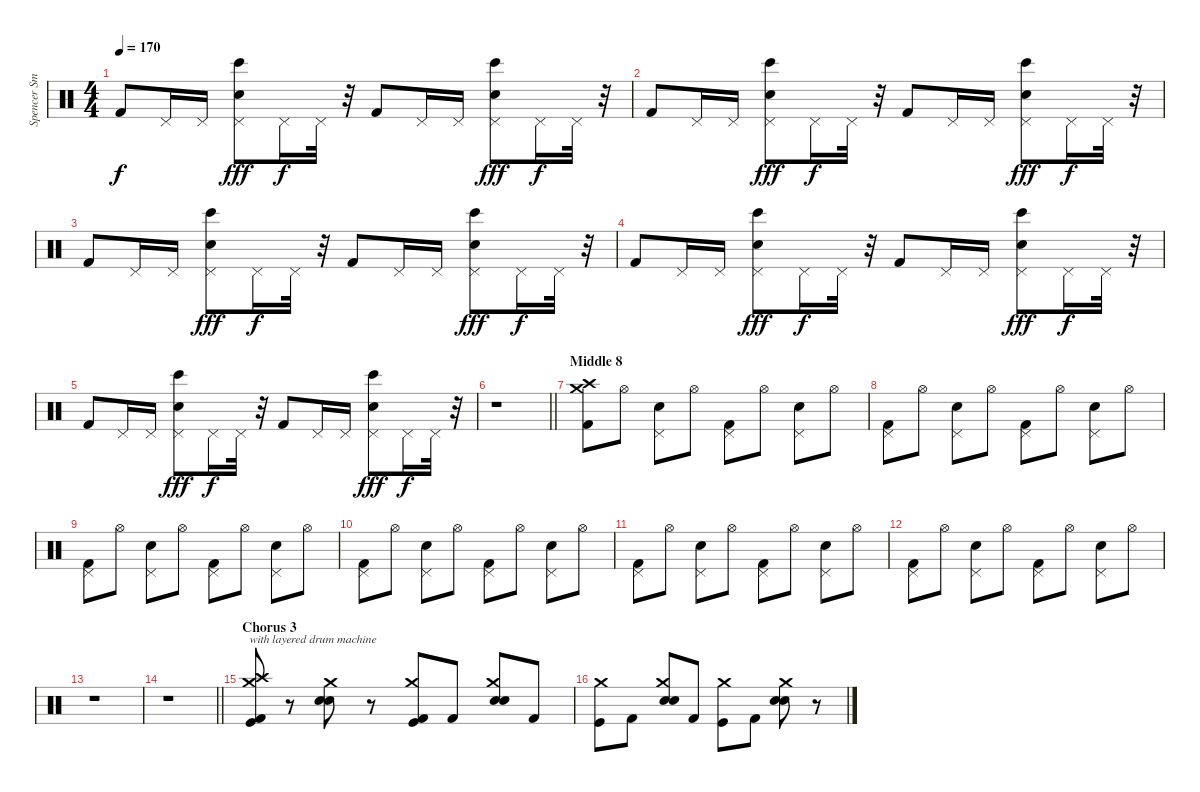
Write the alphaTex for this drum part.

\track ("Spencer Smith (Drums)" "Spencer Sm") {instrument percussion}
\staff {score}
\articulation defaults
\ts (4 4)
\tempo 170
\clef neutral
\ks c "Kick (hit) 2".8{dy f} "Pedal Hi-Hat (hit)".16 "Pedal Hi-Hat (hit)".16
("Pedal Hi-Hat (hit)" "Hand Clap (hit)" "Bongo High (hit)").8{dy fff} "Pedal Hi-Hat (hit)".16{dy f} "Pedal Hi-Hat (hit)".32 r.32 "Kick (hit) 2".8 "Pedal Hi-Hat (hit)".16 "Pedal Hi-Hat (hit)".16 ("Pedal Hi-Hat (hit)" "Hand Clap (hit)" "Bongo High (hit)").8{dy fff} "Pedal Hi-Hat (hit)".16{dy f} "Pedal Hi-Hat (hit)".32 r.32 |
"Kick (hit) 2".8 "Pedal Hi-Hat (hit)".16 "Pedal Hi-Hat (hit)".16 ("Pedal Hi-Hat (hit)" "Hand Clap (hit)" "Bongo High (hit)").8{dy fff} "Pedal Hi-Hat (hit)".16{dy f} "Pedal Hi-Hat (hit)".32 r.32 "Kick (hit) 2".8 "Pedal Hi-Hat (hit)".16 "Pedal Hi-Hat (hit)".16 ("Pedal Hi-Hat (hit)" "Hand Clap (hit)" "Bongo High (hit)").8{dy fff} "Pedal Hi-Hat (hit)".16{dy f} "Pedal Hi-Hat (hit)".32 r.32 |
"Kick (hit) 2".8 "Pedal Hi-Hat (hit)".16 "Pedal Hi-Hat (hit)".16 ("Pedal Hi-Hat (hit)" "Hand Clap (hit)" "Bongo High (hit)").8{dy fff} "Pedal Hi-Hat (hit)".16{dy f} "Pedal Hi-Hat (hit)".32 r.32 "Kick (hit) 2".8 "Pedal Hi-Hat (hit)".16 "Pedal Hi-Hat (hit)".16 ("Pedal Hi-Hat (hit)" "Hand Clap (hit)" "Bongo High (hit)").8{dy fff} "Pedal Hi-Hat (hit)".16{dy f} "Pedal Hi-Hat (hit)".32 r.32 |
"Kick (hit) 2".8 "Pedal Hi-Hat (hit)".16 "Pedal Hi-Hat (hit)".16 ("Pedal Hi-Hat (hit)" "Hand Clap (hit)" "Bongo High (hit)").8{dy fff} "Pedal Hi-Hat (hit)".16{dy f} "Pedal Hi-Hat (hit)".32 r.32 "Kick (hit) 2".8 "Pedal Hi-Hat (hit)".16 "Pedal Hi-Hat (hit)".16 ("Pedal Hi-Hat (hit)" "Hand Clap (hit)" "Bongo High (hit)").8{dy fff} "Pedal Hi-Hat (hit)".16{dy f} "Pedal Hi-Hat (hit)".32 r.32 |
"Kick (hit) 2".8 "Pedal Hi-Hat (hit)".16 "Pedal Hi-Hat (hit)".16 ("Pedal Hi-Hat (hit)" "Hand Clap (hit)" "Bongo High (hit)").8{dy fff} "Pedal Hi-Hat (hit)".16{dy f} "Pedal Hi-Hat (hit)".32 r.32 "Kick (hit) 2".8 "Pedal Hi-Hat (hit)".16 "Pedal Hi-Hat (hit)".16 ("Pedal Hi-Hat (hit)" "Hand Clap (hit)" "Bongo High (hit)").8{dy fff} "Pedal Hi-Hat (hit)".16{dy f} "Pedal Hi-Hat (hit)".32 r.32 |
\barLineRight lightlight
r.1 |
\section ("" "Middle 8")
("Crash medium (hit)" "Crash high (hit)" "Kick (hit) 2").8 "Hi-Hat (open)".8 ("Pedal Hi-Hat (hit)" "Electric Snare (hit)").8 "Hi-Hat (open)".8 ("Pedal Hi-Hat (hit)" "Kick (hit) 2").8 "Hi-Hat (open)".8 ("Pedal Hi-Hat (hit)" "Electric Snare (hit)").8 "Hi-Hat (open)".8 |
("Pedal Hi-Hat (hit)" "Kick (hit) 2").8 "Hi-Hat (open)".8 ("Pedal Hi-Hat (hit)" "Electric Snare (hit)").8 "Hi-Hat (open)".8 ("Pedal Hi-Hat (hit)" "Kick (hit) 2").8 "Hi-Hat (open)".8 ("Pedal Hi-Hat (hit)" "Electric Snare (hit)").8 "Hi-Hat (open)".8 |
("Pedal Hi-Hat (hit)" "Kick (hit) 2").8 "Hi-Hat (open)".8 ("Pedal Hi-Hat (hit)" "Electric Snare (hit)").8 "Hi-Hat (open)".8 ("Pedal Hi-Hat (hit)" "Kick (hit) 2").8 "Hi-Hat (open)".8 ("Pedal Hi-Hat (hit)" "Electric Snare (hit)").8 "Hi-Hat (open)".8 |
("Pedal Hi-Hat (hit)" "Kick (hit) 2").8 "Hi-Hat (open)".8 ("Pedal Hi-Hat (hit)" "Electric Snare (hit)").8 "Hi-Hat (open)".8 ("Pedal Hi-Hat (hit)" "Kick (hit) 2").8 "Hi-Hat (open)".8 ("Pedal Hi-Hat (hit)" "Electric Snare (hit)").8 "Hi-Hat (open)".8 |
("Pedal Hi-Hat (hit)" "Kick (hit) 2").8 "Hi-Hat (open)".8 ("Pedal Hi-Hat (hit)" "Electric Snare (hit)").8 "Hi-Hat (open)".8 ("Pedal Hi-Hat (hit)" "Kick (hit) 2").8 "Hi-Hat (open)".8 ("Pedal Hi-Hat (hit)" "Electric Snare (hit)").8 "Hi-Hat (open)".8 |
("Pedal Hi-Hat (hit)" "Kick (hit) 2").8 "Hi-Hat (open)".8 ("Pedal Hi-Hat (hit)" "Electric Snare (hit)").8 "Hi-Hat (open)".8 ("Pedal Hi-Hat (hit)" "Kick (hit) 2").8 "Hi-Hat (open)".8 ("Pedal Hi-Hat (hit)" "Electric Snare (hit)").8 "Hi-Hat (open)".8 |
r.1 |
\barLineRight lightlight
r.1 |
\section ("" "Chorus 3")
("Crash medium (hit)" "Crash high (hit)" "Kick (hit) 2" "Kick (hit)").8{txt "with layered drum machine"} r.8 ("Crash medium (hit)" "Electric Snare (hit)" "Hand Clap (hit)").8 r.8 ("Crash medium (hit)" "Kick (hit) 2" "Kick (hit)").8 "Kick (hit) 2".8 ("Crash medium (hit)" "Electric Snare (hit)" "Hand Clap (hit)").8 "Kick (hit) 2".8 |
("Crash medium (hit)" "Kick (hit)").8 "Kick (hit) 2".8 ("Crash medium (hit)" "Electric Snare (hit)" "Hand Clap (hit)").8 "Kick (hit) 2".8 ("Crash medium (hit)" "Kick (hit)").8 "Kick (hit) 2".8 ("Crash medium (hit)" "Electric Snare (hit)" "Hand Clap (hit)").8 r.8
